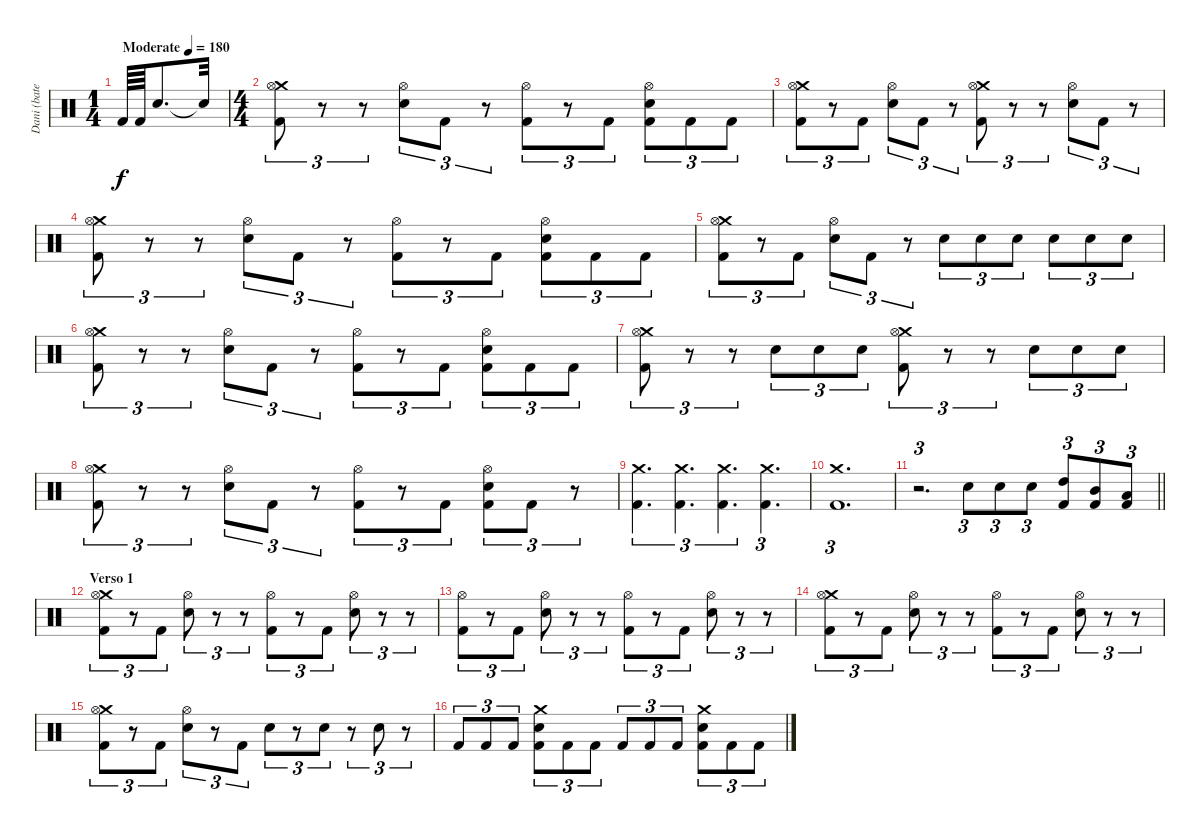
\track ("Dani (bateria)" "Dani (bate") {instrument percussion}
\staff {score}
\articulation defaults
\ts (1 4)
\tempo (180 "Moderate")
\clef neutral
\ks c "Kick (hit) 2".64{dy f} "Kick (hit) 2".64 "Electric Snare (hit)".8{d} "Snare (hit)"{t}.32
|
\ts (4 4)
("Crash medium (hit)" "Hi-Hat (open)" "Kick (hit) 2").8{tu (3 2)} r.8{tu (3 2)} r.8{tu (3 2)} ("Hi-Hat (open)" "Electric Snare (hit)").8{tu (3 2)} "Kick (hit) 2".8{tu (3 2)} r.8{tu (3 2)} ("Hi-Hat (open)" "Kick (hit) 2").8{tu (3 2)} r.8{tu (3 2)} "Kick (hit) 2".8{tu (3 2)} ("Hi-Hat (open)" "Electric Snare (hit)" "Kick (hit) 2").8{tu (3 2)} "Kick (hit) 2".8{tu (3 2)} "Kick (hit) 2".8{tu (3 2)} |
("Crash medium (hit)" "Hi-Hat (open)" "Kick (hit) 2").8{tu (3 2)} r.8{tu (3 2)} "Kick (hit) 2".8{tu (3 2)} ("Hi-Hat (open)" "Electric Snare (hit)").8{tu (3 2)} "Kick (hit) 2".8{tu (3 2)} r.8{tu (3 2)} ("Crash medium (hit)" "Hi-Hat (open)" "Kick (hit) 2").8{tu (3 2)} r.8{tu (3 2)} r.8{tu (3 2)} ("Hi-Hat (open)" "Electric Snare (hit)").8{tu (3 2)} "Kick (hit) 2".8{tu (3 2)} r.8{tu (3 2)} |
("Crash medium (hit)" "Hi-Hat (open)" "Kick (hit) 2").8{tu (3 2)} r.8{tu (3 2)} r.8{tu (3 2)} ("Hi-Hat (open)" "Electric Snare (hit)").8{tu (3 2)} "Kick (hit) 2".8{tu (3 2)} r.8{tu (3 2)} ("Hi-Hat (open)" "Kick (hit) 2").8{tu (3 2)} r.8{tu (3 2)} "Kick (hit) 2".8{tu (3 2)} ("Hi-Hat (open)" "Electric Snare (hit)" "Kick (hit) 2").8{tu (3 2)} "Kick (hit) 2".8{tu (3 2)} "Kick (hit) 2".8{tu (3 2)} |
("Crash medium (hit)" "Hi-Hat (open)" "Kick (hit) 2").8{tu (3 2)} r.8{tu (3 2)} "Kick (hit) 2".8{tu (3 2)} ("Hi-Hat (open)" "Electric Snare (hit)").8{tu (3 2)} "Kick (hit) 2".8{tu (3 2)} r.8{tu (3 2)} "Electric Snare (hit)".8{tu (3 2)} "Electric Snare (hit)".8{tu (3 2)} "Electric Snare (hit)".8{tu (3 2)} "Electric Snare (hit)".8{tu (3 2)} "Electric Snare (hit)".8{tu (3 2)} "Electric Snare (hit)".8{tu (3 2)} |
("Crash medium (hit)" "Hi-Hat (open)" "Kick (hit) 2").8{tu (3 2)} r.8{tu (3 2)} r.8{tu (3 2)} ("Hi-Hat (open)" "Electric Snare (hit)").8{tu (3 2)} "Kick (hit) 2".8{tu (3 2)} r.8{tu (3 2)} ("Hi-Hat (open)" "Kick (hit) 2").8{tu (3 2)} r.8{tu (3 2)} "Kick (hit) 2".8{tu (3 2)} ("Hi-Hat (open)" "Electric Snare (hit)" "Kick (hit) 2").8{tu (3 2)} "Kick (hit) 2".8{tu (3 2)} "Kick (hit) 2".8{tu (3 2)} |
("Crash medium (hit)" "Hi-Hat (open)" "Kick (hit) 2").8{tu (3 2)} r.8{tu (3 2)} r.8{tu (3 2)} "Electric Snare (hit)".8{tu (3 2)} "Electric Snare (hit)".8{tu (3 2)} "Electric Snare (hit)".8{tu (3 2)} ("Crash medium (hit)" "Hi-Hat (open)" "Kick (hit) 2").8{tu (3 2)} r.8{tu (3 2)} r.8{tu (3 2)} "Electric Snare (hit)".8{tu (3 2)} "Electric Snare (hit)".8{tu (3 2)} "Electric Snare (hit)".8{tu (3 2)} |
("Crash medium (hit)" "Hi-Hat (open)" "Kick (hit) 2").8{tu (3 2)} r.8{tu (3 2)} r.8{tu (3 2)} ("Hi-Hat (open)" "Electric Snare (hit)").8{tu (3 2)} "Kick (hit) 2".8{tu (3 2)} r.8{tu (3 2)} ("Hi-Hat (open)" "Kick (hit) 2").8{tu (3 2)} r.8{tu (3 2)} "Kick (hit) 2".8{tu (3 2)} ("Hi-Hat (open)" "Electric Snare (hit)" "Kick (hit) 2").8{tu (3 2)} "Kick (hit) 2".8{tu (3 2)} r.8{tu (3 2)} |
("Crash medium (hit)" "Kick (hit) 2").4{d tu (3 2)} ("Crash medium (hit)" "Kick (hit) 2").4{d tu (3 2)} ("Crash medium (hit)" "Kick (hit) 2").4{d tu (3 2)} ("Crash medium (hit)" "Kick (hit) 2").4{d tu (3 2)} |
("Crash medium (hit)" "Kick (hit) 2").1{d tu (3 2)} |
\barLineRight lightlight
r.2{d tu (3 2)} "Electric Snare (hit)".8{tu (3 2)} "Electric Snare (hit)".8{tu (3 2)} "Electric Snare (hit)".8{tu (3 2)} ("High Tom (hit)" "Kick (hit) 2").8{tu (3 2)} ("Mid Tom (hit)" "Kick (hit) 2").8{tu (3 2)} ("Low Tom (hit)" "Kick (hit) 2").8{tu (3 2)} |
\section ("" "Verso 1")
("Crash medium (hit)" "Hi-Hat (open)" "Kick (hit) 2").8{tu (3 2)} r.8{tu (3 2)} "Kick (hit) 2".8{tu (3 2)} ("Hi-Hat (open)" "Electric Snare (hit)").8{tu (3 2)} r.8{tu (3 2)} r.8{tu (3 2)} ("Hi-Hat (open)" "Kick (hit) 2").8{tu (3 2)} r.8{tu (3 2)} "Kick (hit) 2".8{tu (3 2)} ("Hi-Hat (open)" "Electric Snare (hit)").8{tu (3 2)} r.8{tu (3 2)} r.8{tu (3 2)} |
("Hi-Hat (open)" "Kick (hit) 2").8{tu (3 2)} r.8{tu (3 2)} "Kick (hit) 2".8{tu (3 2)} ("Hi-Hat (open)" "Electric Snare (hit)").8{tu (3 2)} r.8{tu (3 2)} r.8{tu (3 2)} ("Hi-Hat (open)" "Kick (hit) 2").8{tu (3 2)} r.8{tu (3 2)} "Kick (hit) 2".8{tu (3 2)} ("Hi-Hat (open)" "Electric Snare (hit)").8{tu (3 2)} r.8{tu (3 2)} r.8{tu (3 2)} |
("Crash medium (hit)" "Hi-Hat (open)" "Kick (hit) 2").8{tu (3 2)} r.8{tu (3 2)} "Kick (hit) 2".8{tu (3 2)} ("Hi-Hat (open)" "Electric Snare (hit)").8{tu (3 2)} r.8{tu (3 2)} r.8{tu (3 2)} ("Hi-Hat (open)" "Kick (hit) 2").8{tu (3 2)} r.8{tu (3 2)} "Kick (hit) 2".8{tu (3 2)} ("Hi-Hat (open)" "Electric Snare (hit)").8{tu (3 2)} r.8{tu (3 2)} r.8{tu (3 2)} |
("Crash medium (hit)" "Hi-Hat (open)" "Kick (hit) 2").8{tu (3 2)} r.8{tu (3 2)} "Kick (hit) 2".8{tu (3 2)} ("Hi-Hat (open)" "Electric Snare (hit)").8{tu (3 2)} r.8{tu (3 2)} "Kick (hit) 2".8{tu (3 2)} "Electric Snare (hit)".8{tu (3 2)} r.8{tu (3 2)} "Electric Snare (hit)".8{tu (3 2)} r.8{tu (3 2)} "Electric Snare (hit)".8{tu (3 2)} r.8{tu (3 2)} |
"Kick (hit) 2".8{tu (3 2)} "Kick (hit) 2".8{tu (3 2)} "Kick (hit) 2".8{tu (3 2)} ("Crash medium (hit)" "Electric Snare (hit)" "Kick (hit) 2").8{tu (3 2)} "Kick (hit) 2".8{tu (3 2)} "Kick (hit) 2".8{tu (3 2)} "Kick (hit) 2".8{tu (3 2)} "Kick (hit) 2".8{tu (3 2)} "Kick (hit) 2".8{tu (3 2)} ("Crash medium (hit)" "Electric Snare (hit)" "Kick (hit) 2").8{tu (3 2)} "Kick (hit) 2".8{tu (3 2)} "Kick (hit) 2".8{tu (3 2)}
